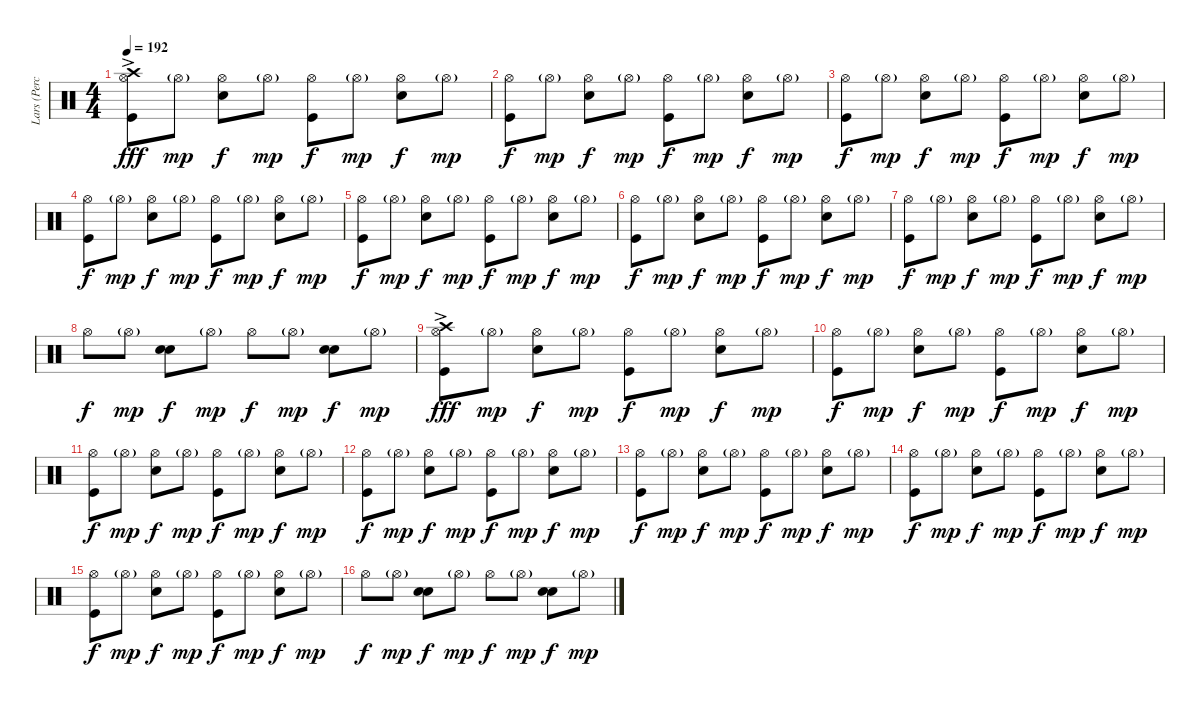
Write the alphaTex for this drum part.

\track ("Lars (Percussion)" "Lars (Perc") {instrument percussion}
\staff {score}
\articulation defaults
\ts (4 4)
\tempo 192
\clef neutral
\ks c
("Hi-Hat (open)" "Crash high (hit)" "Kick (hit)"{ac}).8{dy fff} "Hi-Hat (open)"{g}.8{dy mp} ("Hi-Hat (open)" "Snare (hit) 2").8{dy f} "Hi-Hat (open)"{g}.8{dy mp} ("Hi-Hat (open)" "Kick (hit)").8{dy f} "Hi-Hat (open)"{g}.8{dy mp} ("Hi-Hat (open)" "Snare (hit) 2").8{dy f} "Hi-Hat (open)"{g}.8{dy mp} |
("Hi-Hat (open)" "Kick (hit)").8{dy f} "Hi-Hat (open)"{g}.8{dy mp} ("Hi-Hat (open)" "Snare (hit) 2").8{dy f} "Hi-Hat (open)"{g}.8{dy mp} ("Hi-Hat (open)" "Kick (hit)").8{dy f} "Hi-Hat (open)"{g}.8{dy mp} ("Hi-Hat (open)" "Snare (hit) 2").8{dy f} "Hi-Hat (open)"{g}.8{dy mp} |
("Hi-Hat (open)" "Kick (hit)").8{dy f} "Hi-Hat (open)"{g}.8{dy mp} ("Hi-Hat (open)" "Snare (hit) 2").8{dy f} "Hi-Hat (open)"{g}.8{dy mp} ("Hi-Hat (open)" "Kick (hit)").8{dy f} "Hi-Hat (open)"{g}.8{dy mp} ("Hi-Hat (open)" "Snare (hit) 2").8{dy f} "Hi-Hat (open)"{g}.8{dy mp} |
("Hi-Hat (open)" "Kick (hit)").8{dy f} "Hi-Hat (open)"{g}.8{dy mp} ("Hi-Hat (open)" "Snare (hit) 2").8{dy f} "Hi-Hat (open)"{g}.8{dy mp} ("Hi-Hat (open)" "Kick (hit)").8{dy f} "Hi-Hat (open)"{g}.8{dy mp} ("Hi-Hat (open)" "Snare (hit) 2").8{dy f} "Hi-Hat (open)"{g}.8{dy mp} |
("Hi-Hat (open)" "Kick (hit)").8{dy f} "Hi-Hat (open)"{g}.8{dy mp} ("Hi-Hat (open)" "Snare (hit) 2").8{dy f} "Hi-Hat (open)"{g}.8{dy mp} ("Hi-Hat (open)" "Kick (hit)").8{dy f} "Hi-Hat (open)"{g}.8{dy mp} ("Hi-Hat (open)" "Snare (hit) 2").8{dy f} "Hi-Hat (open)"{g}.8{dy mp} |
("Hi-Hat (open)" "Kick (hit)").8{dy f} "Hi-Hat (open)"{g}.8{dy mp} ("Hi-Hat (open)" "Snare (hit) 2").8{dy f} "Hi-Hat (open)"{g}.8{dy mp} ("Hi-Hat (open)" "Kick (hit)").8{dy f} "Hi-Hat (open)"{g}.8{dy mp} ("Hi-Hat (open)" "Snare (hit) 2").8{dy f} "Hi-Hat (open)"{g}.8{dy mp} |
("Hi-Hat (open)" "Kick (hit)").8{dy f} "Hi-Hat (open)"{g}.8{dy mp} ("Hi-Hat (open)" "Snare (hit) 2").8{dy f} "Hi-Hat (open)"{g}.8{dy mp} ("Hi-Hat (open)" "Kick (hit)").8{dy f} "Hi-Hat (open)"{g}.8{dy mp} ("Hi-Hat (open)" "Snare (hit) 2").8{dy f} "Hi-Hat (open)"{g}.8{dy mp} |
"Hi-Hat (open)".8{dy f} "Hi-Hat (open)"{g}.8{dy mp} ("Snare (hit) 2" "Snare (hit) 2").8{bd 480 dy f} "Hi-Hat (open)"{g}.8{dy mp} "Hi-Hat (open)".8{dy f} "Hi-Hat (open)"{g}.8{dy mp} ("Snare (hit) 2" "Snare (hit) 2").8{bd 480 dy f} "Hi-Hat (open)"{g}.8{dy mp} |
("Hi-Hat (open)" "Crash high (hit)" "Kick (hit)"{ac}).8{dy fff} "Hi-Hat (open)"{g}.8{dy mp} ("Hi-Hat (open)" "Snare (hit) 2").8{dy f} "Hi-Hat (open)"{g}.8{dy mp} ("Hi-Hat (open)" "Kick (hit)").8{dy f} "Hi-Hat (open)"{g}.8{dy mp} ("Hi-Hat (open)" "Snare (hit) 2").8{dy f} "Hi-Hat (open)"{g}.8{dy mp} |
("Hi-Hat (open)" "Kick (hit)").8{dy f} "Hi-Hat (open)"{g}.8{dy mp} ("Hi-Hat (open)" "Snare (hit) 2").8{dy f} "Hi-Hat (open)"{g}.8{dy mp} ("Hi-Hat (open)" "Kick (hit)").8{dy f} "Hi-Hat (open)"{g}.8{dy mp} ("Hi-Hat (open)" "Snare (hit) 2").8{dy f} "Hi-Hat (open)"{g}.8{dy mp} |
("Hi-Hat (open)" "Kick (hit)").8{dy f} "Hi-Hat (open)"{g}.8{dy mp} ("Hi-Hat (open)" "Snare (hit) 2").8{dy f} "Hi-Hat (open)"{g}.8{dy mp} ("Hi-Hat (open)" "Kick (hit)").8{dy f} "Hi-Hat (open)"{g}.8{dy mp} ("Hi-Hat (open)" "Snare (hit) 2").8{dy f} "Hi-Hat (open)"{g}.8{dy mp} |
("Hi-Hat (open)" "Kick (hit)").8{dy f} "Hi-Hat (open)"{g}.8{dy mp} ("Hi-Hat (open)" "Snare (hit) 2").8{dy f} "Hi-Hat (open)"{g}.8{dy mp} ("Hi-Hat (open)" "Kick (hit)").8{dy f} "Hi-Hat (open)"{g}.8{dy mp} ("Hi-Hat (open)" "Snare (hit) 2").8{dy f} "Hi-Hat (open)"{g}.8{dy mp} |
("Hi-Hat (open)" "Kick (hit)").8{dy f} "Hi-Hat (open)"{g}.8{dy mp} ("Hi-Hat (open)" "Snare (hit) 2").8{dy f} "Hi-Hat (open)"{g}.8{dy mp} ("Hi-Hat (open)" "Kick (hit)").8{dy f} "Hi-Hat (open)"{g}.8{dy mp} ("Hi-Hat (open)" "Snare (hit) 2").8{dy f} "Hi-Hat (open)"{g}.8{dy mp} |
("Hi-Hat (open)" "Kick (hit)").8{dy f} "Hi-Hat (open)"{g}.8{dy mp} ("Hi-Hat (open)" "Snare (hit) 2").8{dy f} "Hi-Hat (open)"{g}.8{dy mp} ("Hi-Hat (open)" "Kick (hit)").8{dy f} "Hi-Hat (open)"{g}.8{dy mp} ("Hi-Hat (open)" "Snare (hit) 2").8{dy f} "Hi-Hat (open)"{g}.8{dy mp} |
("Hi-Hat (open)" "Kick (hit)").8{dy f} "Hi-Hat (open)"{g}.8{dy mp} ("Hi-Hat (open)" "Snare (hit) 2").8{dy f} "Hi-Hat (open)"{g}.8{dy mp} ("Hi-Hat (open)" "Kick (hit)").8{dy f} "Hi-Hat (open)"{g}.8{dy mp} ("Hi-Hat (open)" "Snare (hit) 2").8{dy f} "Hi-Hat (open)"{g}.8{dy mp} |
"Hi-Hat (open)".8{dy f} "Hi-Hat (open)"{g}.8{dy mp} ("Snare (hit) 2" "Snare (hit) 2").8{bd 480 dy f} "Hi-Hat (open)"{g}.8{dy mp} "Hi-Hat (open)".8{dy f} "Hi-Hat (open)"{g}.8{dy mp} ("Snare (hit) 2" "Snare (hit) 2").8{bd 480 dy f} "Hi-Hat (open)"{g}.8{dy mp}
